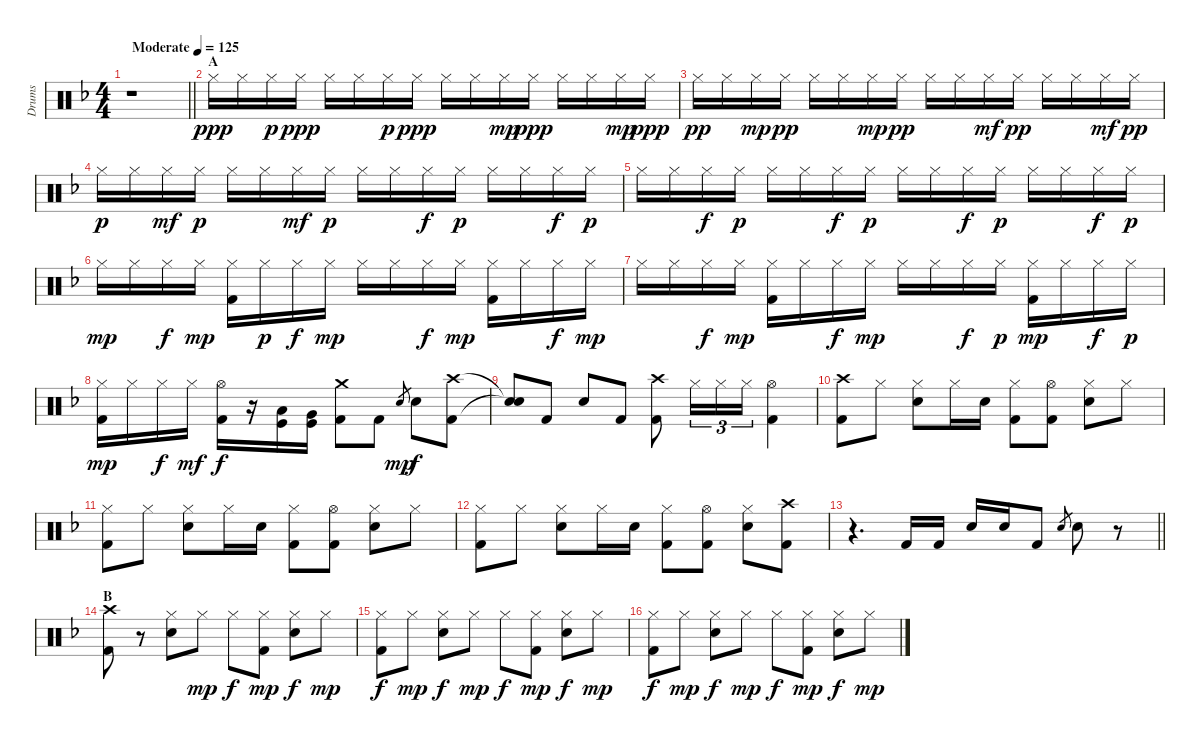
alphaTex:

\track ("Drums" "Drums") {instrument percussion}
\staff {score}
\articulation defaults
\ts (4 4)
\tempo (125 "Moderate")
\clef neutral
\barLineRight lightlight
\ks f
r.1{dy ppp} |
\section ("" "A")
"Hi-Hat (closed)".16 "Hi-Hat (closed)".16 "Hi-Hat (closed)".16{dy p} "Hi-Hat (closed)".16{dy ppp} "Hi-Hat (closed)".16 "Hi-Hat (closed)".16 "Hi-Hat (closed)".16{dy p} "Hi-Hat (closed)".16{dy ppp} "Hi-Hat (closed)".16 "Hi-Hat (closed)".16 "Hi-Hat (closed)".16{dy mp} "Hi-Hat (closed)".16{dy ppp} "Hi-Hat (closed)".16 "Hi-Hat (closed)".16 "Hi-Hat (closed)".16{dy mp} "Hi-Hat (closed)".16{dy ppp} |
"Hi-Hat (closed)".16{dy pp} "Hi-Hat (closed)".16 "Hi-Hat (closed)".16{dy mp} "Hi-Hat (closed)".16{dy pp} "Hi-Hat (closed)".16 "Hi-Hat (closed)".16 "Hi-Hat (closed)".16{dy mp} "Hi-Hat (closed)".16{dy pp} "Hi-Hat (closed)".16 "Hi-Hat (closed)".16 "Hi-Hat (closed)".16{dy mf} "Hi-Hat (closed)".16{dy pp} "Hi-Hat (closed)".16 "Hi-Hat (closed)".16 "Hi-Hat (closed)".16{dy mf} "Hi-Hat (closed)".16{dy pp} |
"Hi-Hat (closed)".16{dy p} "Hi-Hat (closed)".16 "Hi-Hat (closed)".16{dy mf} "Hi-Hat (closed)".16{dy p} "Hi-Hat (closed)".16 "Hi-Hat (closed)".16 "Hi-Hat (closed)".16{dy mf} "Hi-Hat (closed)".16{dy p} "Hi-Hat (closed)".16 "Hi-Hat (closed)".16 "Hi-Hat (closed)".16{dy f} "Hi-Hat (closed)".16{dy p} "Hi-Hat (closed)".16 "Hi-Hat (closed)".16 "Hi-Hat (closed)".16{dy f} "Hi-Hat (closed)".16{dy p} |
"Hi-Hat (closed)".16 "Hi-Hat (closed)".16 "Hi-Hat (closed)".16{dy f} "Hi-Hat (closed)".16{dy p} "Hi-Hat (closed)".16 "Hi-Hat (closed)".16 "Hi-Hat (closed)".16{dy f} "Hi-Hat (closed)".16{dy p} "Hi-Hat (closed)".16 "Hi-Hat (closed)".16 "Hi-Hat (closed)".16{dy f} "Hi-Hat (closed)".16{dy p} "Hi-Hat (closed)".16 "Hi-Hat (closed)".16 "Hi-Hat (closed)".16{dy f} "Hi-Hat (closed)".16{dy p} |
"Hi-Hat (closed)".16{dy mp} "Hi-Hat (closed)".16 "Hi-Hat (closed)".16{dy f} "Hi-Hat (closed)".16{dy mp} ("Hi-Hat (closed)" "Kick (hit) 2").16 "Hi-Hat (closed)".16{dy p} "Hi-Hat (closed)".16{dy f} "Hi-Hat (closed)".16{dy mp} "Hi-Hat (closed)".16 "Hi-Hat (closed)".16 "Hi-Hat (closed)".16{dy f} "Hi-Hat (closed)".16{dy mp} ("Hi-Hat (closed)" "Kick (hit) 2").16 "Hi-Hat (closed)".16 "Hi-Hat (closed)".16{dy f} "Hi-Hat (closed)".16{dy mp} |
"Hi-Hat (closed)".16 "Hi-Hat (closed)".16 "Hi-Hat (closed)".16{dy f} "Hi-Hat (closed)".16{dy mp} ("Hi-Hat (closed)" "Kick (hit) 2").16 "Hi-Hat (closed)".16 "Hi-Hat (closed)".16{dy f} "Hi-Hat (closed)".16{dy mp} "Hi-Hat (closed)".16 "Hi-Hat (closed)".16 "Hi-Hat (closed)".16{dy f} "Hi-Hat (closed)".16{dy p} ("Hi-Hat (closed)" "Kick (hit) 2").16{dy mp} "Hi-Hat (closed)".16 "Hi-Hat (closed)".16{dy f} "Hi-Hat (closed)".16{dy p} |
("Hi-Hat (closed)" "Kick (hit) 2").16{dy mp} "Hi-Hat (closed)".16 "Hi-Hat (closed)".16{dy f} "Hi-Hat (closed)".16{dy mf} ("Hi-Hat (open)" "Kick (hit) 2").16{dy f} r.16 ("Low Tom (hit)" "Kick (hit)").16 ("Very Low Tom (hit)" "Kick (hit)").16 ("Crash medium (hit)" "Kick (hit) 2").8 "Kick (hit) 2".8 "Electric Snare (hit)".8{gr dy mp} "Electric Snare (hit)".8{dy f} ("Crash high (hit)" "Kick (hit) 2").8 |
("Snare (hit)"{t} "Snare (hit)"{t}).8 "Kick (hit) 2".8 "Electric Snare (hit)".8 "Kick (hit) 2".8 ("Crash high (hit)" "Kick (hit) 2").8 "Hi-Hat (closed)".16{tu (3 2)} "Hi-Hat (closed)".16{tu (3 2)} "Hi-Hat (closed)".16{tu (3 2)} ("Hi-Hat (open)" "Kick (hit) 2").4 |
("Crash high (hit)" "Kick (hit) 2").8 "Hi-Hat (closed)".8 ("Hi-Hat (closed)" "Electric Snare (hit)").8 "Hi-Hat (closed)".16 "Electric Snare (hit)".16 ("Hi-Hat (closed)" "Kick (hit) 2").8 ("Hi-Hat (open)" "Kick (hit) 2").8 ("Hi-Hat (closed)" "Electric Snare (hit)").8 "Hi-Hat (closed)".8 |
("Hi-Hat (closed)" "Kick (hit) 2").8 "Hi-Hat (closed)".8 ("Hi-Hat (closed)" "Electric Snare (hit)").8 "Hi-Hat (closed)".16 "Electric Snare (hit)".16 ("Hi-Hat (closed)" "Kick (hit) 2").8 ("Hi-Hat (open)" "Kick (hit) 2").8 ("Hi-Hat (closed)" "Electric Snare (hit)").8 "Hi-Hat (closed)".8 |
("Hi-Hat (closed)" "Kick (hit) 2").8 "Hi-Hat (closed)".8 ("Hi-Hat (closed)" "Electric Snare (hit)").8 "Hi-Hat (closed)".16 "Electric Snare (hit)".16 ("Hi-Hat (closed)" "Kick (hit) 2").8 ("Hi-Hat (open)" "Kick (hit) 2").8 ("Hi-Hat (closed)" "Electric Snare (hit)").8 ("Crash high (hit)" "Kick (hit) 2").8 |
\barLineRight lightlight
r.4{d} "Kick (hit) 2".16 "Kick (hit) 2".16 "Electric Snare (hit)".16 "Electric Snare (hit)".16 "Kick (hit) 2".8 "Electric Snare (hit)".8{gr} "Electric Snare (hit)".8 r.8 |
\section ("" "B")
("Crash high (hit)" "Kick (hit) 2").8 r.8 ("Hi-Hat (closed)" "Electric Snare (hit)").8 "Hi-Hat (closed)".8{dy mp} "Hi-Hat (closed)".8{dy f} ("Hi-Hat (closed)" "Kick (hit) 2").8{dy mp} ("Hi-Hat (closed)" "Electric Snare (hit)").8{dy f} "Hi-Hat (closed)".8{dy mp} |
("Hi-Hat (closed)" "Kick (hit) 2").8{dy f} "Hi-Hat (closed)".8{dy mp} ("Hi-Hat (closed)" "Electric Snare (hit)").8{dy f} "Hi-Hat (closed)".8{dy mp} "Hi-Hat (closed)".8{dy f} ("Hi-Hat (closed)" "Kick (hit) 2").8{dy mp} ("Hi-Hat (closed)" "Electric Snare (hit)").8{dy f} "Hi-Hat (closed)".8{dy mp} |
("Hi-Hat (closed)" "Kick (hit) 2").8{dy f} "Hi-Hat (closed)".8{dy mp} ("Hi-Hat (closed)" "Electric Snare (hit)").8{dy f} "Hi-Hat (closed)".8{dy mp} "Hi-Hat (closed)".8{dy f} ("Hi-Hat (closed)" "Kick (hit) 2").8{dy mp} ("Hi-Hat (closed)" "Electric Snare (hit)").8{dy f} "Hi-Hat (closed)".8{dy mp}
